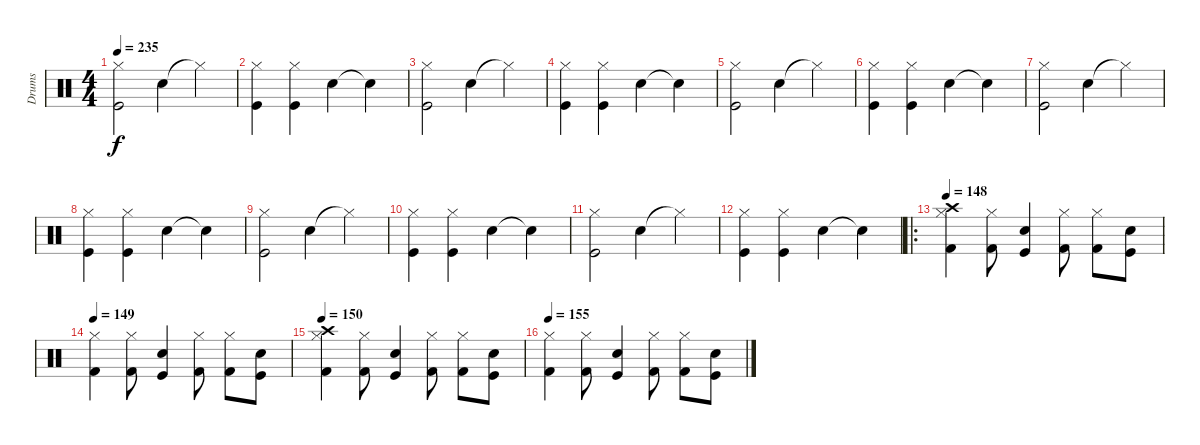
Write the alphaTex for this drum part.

\track ("Drums" "Drums") {instrument percussion}
\staff {score}
\articulation defaults
\ts (4 4)
\tempo 235
\clef neutral
\ks c
("Hi-Hat (closed)" "Kick (hit)").2{dy f} "Snare (hit) 2".4 "Hi-Hat (closed)"{t}.4 |
("Hi-Hat (closed)" "Kick (hit)").4 ("Hi-Hat (closed)" "Kick (hit)").4 "Snare (hit) 2".4 "Snare (hit)"{t}.4 |
("Hi-Hat (closed)" "Kick (hit)").2 "Snare (hit) 2".4 "Hi-Hat (closed)"{t}.4 |
("Hi-Hat (closed)" "Kick (hit)").4 ("Hi-Hat (closed)" "Kick (hit)").4 "Snare (hit) 2".4 "Snare (hit)"{t}.4 |
("Hi-Hat (closed)" "Kick (hit)").2 "Snare (hit) 2".4 "Hi-Hat (closed)"{t}.4 |
("Hi-Hat (closed)" "Kick (hit)").4 ("Hi-Hat (closed)" "Kick (hit)").4 "Snare (hit) 2".4 "Snare (hit)"{t}.4 |
("Hi-Hat (closed)" "Kick (hit)").2 "Snare (hit) 2".4 "Hi-Hat (closed)"{t}.4 |
("Hi-Hat (closed)" "Kick (hit)").4 ("Hi-Hat (closed)" "Kick (hit)").4 "Snare (hit) 2".4 "Snare (hit)"{t}.4 |
("Hi-Hat (closed)" "Kick (hit)").2 "Snare (hit) 2".4 "Hi-Hat (closed)"{t}.4 |
("Hi-Hat (closed)" "Kick (hit)").4 ("Hi-Hat (closed)" "Kick (hit)").4 "Snare (hit) 2".4 "Snare (hit)"{t}.4 |
("Hi-Hat (closed)" "Kick (hit)").2 "Snare (hit) 2".4 "Hi-Hat (closed)"{t}.4 |
("Hi-Hat (closed)" "Kick (hit)").4 ("Hi-Hat (closed)" "Kick (hit)").4 "Snare (hit) 2".4 "Snare (hit)"{t}.4 |
\ro
\tempo 235
\tempo 148
("Kick (hit) 2" "Hi-Hat (closed)" "Crash high (hit)").4 ("Kick (hit) 2" "Hi-Hat (closed)").8 ("Snare (hit) 2" "Kick (hit)").4 ("Kick (hit) 2" "Hi-Hat (closed)").8 ("Kick (hit) 2" "Hi-Hat (closed)").8 ("Snare (hit) 2" "Kick (hit)").8 |
\tempo 149
("Kick (hit) 2" "Hi-Hat (closed)").4 ("Kick (hit) 2" "Hi-Hat (closed)").8 ("Snare (hit) 2" "Kick (hit)").4 ("Kick (hit) 2" "Hi-Hat (closed)").8 ("Kick (hit) 2" "Hi-Hat (closed)").8 ("Snare (hit) 2" "Kick (hit)").8 |
\tempo 150
("Kick (hit) 2" "Hi-Hat (closed)" "Crash high (hit)").4 ("Kick (hit) 2" "Hi-Hat (closed)").8 ("Snare (hit) 2" "Kick (hit)").4 ("Kick (hit) 2" "Hi-Hat (closed)").8 ("Kick (hit) 2" "Hi-Hat (closed)").8 ("Snare (hit) 2" "Kick (hit)").8 |
\tempo 155
("Kick (hit) 2" "Hi-Hat (closed)").4 ("Kick (hit) 2" "Hi-Hat (closed)").8 ("Snare (hit) 2" "Kick (hit)").4 ("Kick (hit) 2" "Hi-Hat (closed)").8 ("Kick (hit) 2" "Hi-Hat (closed)").8 ("Snare (hit) 2" "Kick (hit)").8
